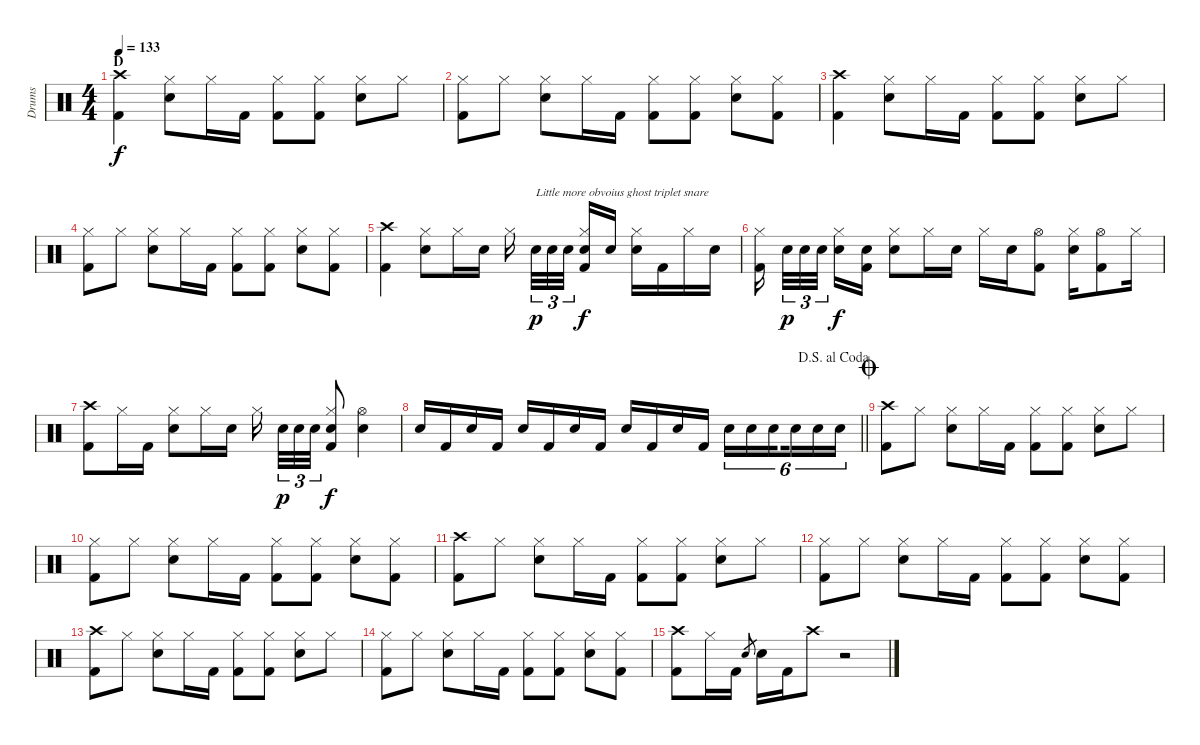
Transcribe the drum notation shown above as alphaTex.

\track ("Drums" "Drums") {instrument percussion}
\staff {score}
\articulation defaults
\ts (4 4)
\section ("" "D")
\tempo 133
\clef neutral
\ks c
("Crash high (hit)" "Kick (hit) 2").4{dy f} ("Hi-Hat (closed)" "Electric Snare (hit)").8 "Hi-Hat (closed)".16 "Kick (hit) 2".16 ("Hi-Hat (closed)" "Kick (hit) 2").8 ("Hi-Hat (closed)" "Kick (hit) 2").8 ("Hi-Hat (closed)" "Electric Snare (hit)").8 "Hi-Hat (closed)".8 |
("Hi-Hat (closed)" "Kick (hit) 2").8 "Hi-Hat (closed)".8 ("Hi-Hat (closed)" "Electric Snare (hit)").8 "Hi-Hat (closed)".16 "Kick (hit) 2".16 ("Hi-Hat (closed)" "Kick (hit) 2").8 ("Hi-Hat (closed)" "Kick (hit) 2").8 ("Hi-Hat (closed)" "Electric Snare (hit)").8 ("Hi-Hat (closed)" "Kick (hit) 2").8 |
("Crash high (hit)" "Kick (hit) 2").4 ("Hi-Hat (closed)" "Electric Snare (hit)").8 "Hi-Hat (closed)".16 "Kick (hit) 2".16 ("Hi-Hat (closed)" "Kick (hit) 2").8 ("Hi-Hat (closed)" "Kick (hit) 2").8 ("Hi-Hat (closed)" "Electric Snare (hit)").8 "Hi-Hat (closed)".8 |
("Hi-Hat (closed)" "Kick (hit) 2").8 "Hi-Hat (closed)".8 ("Hi-Hat (closed)" "Electric Snare (hit)").8 "Hi-Hat (closed)".16 "Kick (hit) 2".16 ("Hi-Hat (closed)" "Kick (hit) 2").8 ("Hi-Hat (closed)" "Kick (hit) 2").8 ("Hi-Hat (closed)" "Electric Snare (hit)").8 ("Hi-Hat (closed)" "Kick (hit) 2").8 |
("Crash high (hit)" "Kick (hit) 2").4 ("Hi-Hat (closed)" "Electric Snare (hit)").8 "Hi-Hat (closed)".16 "Electric Snare (hit)".16 "Hi-Hat (closed)".16{beam splitsecondary} "Electric Snare (hit)".32{tu (3 2) txt "Little more obvoius ghost triplet snare" dy p} "Electric Snare (hit)".32{tu (3 2)} "Electric Snare (hit)".32{tu (3 2) beam splitsecondary} ("Hi-Hat (closed)" "Electric Snare (hit)" "Kick (hit) 2").16{dy f} "Electric Snare (hit)".16 ("Hi-Hat (closed)" "Electric Snare (hit)").16 "Kick (hit) 2".16 "Hi-Hat (closed)".16 "Electric Snare (hit)".16 |
("Hi-Hat (closed)" "Kick (hit) 2").16{beam splitsecondary} "Electric Snare (hit)".32{tu (3 2) dy p} "Electric Snare (hit)".32{tu (3 2)} "Electric Snare (hit)".32{tu (3 2) beam splitsecondary} ("Hi-Hat (closed)" "Electric Snare (hit)").16{dy f} ("Electric Snare (hit)" "Kick (hit) 2").16 ("Hi-Hat (closed)" "Electric Snare (hit)").8 "Hi-Hat (closed)".16 "Electric Snare (hit)".16 "Hi-Hat (closed)".16 "Electric Snare (hit)".16 ("Hi-Hat (open)" "Kick (hit) 2").8 ("Hi-Hat (closed)" "Electric Snare (hit)").16 ("Hi-Hat (open)" "Kick (hit) 2").8 "Hi-Hat (closed)".16 |
("Crash high (hit)" "Kick (hit) 2").8 "Hi-Hat (closed)".16 "Kick (hit) 2".16 ("Hi-Hat (closed)" "Electric Snare (hit)").8 "Hi-Hat (closed)".16 "Electric Snare (hit)".16 "Hi-Hat (closed)".16{beam splitsecondary} "Electric Snare (hit)".32{tu (3 2) dy p} "Electric Snare (hit)".32{tu (3 2)} "Electric Snare (hit)".32{tu (3 2)} ("Hi-Hat (closed)" "Electric Snare (hit)" "Kick (hit) 2").8{dy f} ("Hi-Hat (open)" "Electric Snare (hit)").4 |
\jump dalsegnoalcoda
\barLineRight lightlight "Electric Snare (hit)".16 "Kick (hit) 2".16 "Electric Snare (hit)".16 "Kick (hit) 2".16 "Electric Snare (hit)".16 "Kick (hit) 2".16 "Electric Snare (hit)".16 "Kick (hit) 2".16 "Electric Snare (hit)".16 "Kick (hit) 2".16 "Electric Snare (hit)".16 "Kick (hit) 2".16 "Electric Snare (hit)".16{tu (6 4)} "Electric Snare (hit)".16{tu (6 4)} "Electric Snare (hit)".16{tu (6 4) beam splitsecondary} "Electric Snare (hit)".16{tu (6 4)} "Electric Snare (hit)".16{tu (6 4)} "Electric Snare (hit)".16{tu (6 4)}
|
\jump coda
("Crash high (hit)" "Kick (hit) 2").8 "Hi-Hat (closed)".8 ("Hi-Hat (closed)" "Electric Snare (hit)").8 "Hi-Hat (closed)".16 "Kick (hit) 2".16 ("Hi-Hat (closed)" "Kick (hit) 2").8 ("Hi-Hat (closed)" "Kick (hit) 2").8 ("Hi-Hat (closed)" "Electric Snare (hit)").8 "Hi-Hat (closed)".8 |
("Hi-Hat (closed)" "Kick (hit) 2").8 "Hi-Hat (closed)".8 ("Hi-Hat (closed)" "Electric Snare (hit)").8 "Hi-Hat (closed)".16 "Kick (hit) 2".16 ("Hi-Hat (closed)" "Kick (hit) 2").8 ("Hi-Hat (closed)" "Kick (hit) 2").8 ("Hi-Hat (closed)" "Electric Snare (hit)").8 ("Hi-Hat (closed)" "Kick (hit) 2").8 |
("Crash high (hit)" "Kick (hit) 2").8 "Hi-Hat (closed)".8 ("Hi-Hat (closed)" "Electric Snare (hit)").8 "Hi-Hat (closed)".16 "Kick (hit) 2".16 ("Hi-Hat (closed)" "Kick (hit) 2").8 ("Hi-Hat (closed)" "Kick (hit) 2").8 ("Hi-Hat (closed)" "Electric Snare (hit)").8 "Hi-Hat (closed)".8 |
("Hi-Hat (closed)" "Kick (hit) 2").8 "Hi-Hat (closed)".8 ("Hi-Hat (closed)" "Electric Snare (hit)").8 "Hi-Hat (closed)".16 "Kick (hit) 2".16 ("Hi-Hat (closed)" "Kick (hit) 2").8 ("Hi-Hat (closed)" "Kick (hit) 2").8 ("Hi-Hat (closed)" "Electric Snare (hit)").8 ("Hi-Hat (closed)" "Kick (hit) 2").8 |
("Crash high (hit)" "Kick (hit) 2").8 "Hi-Hat (closed)".8 ("Hi-Hat (closed)" "Electric Snare (hit)").8 "Hi-Hat (closed)".16 "Kick (hit) 2".16 ("Hi-Hat (closed)" "Kick (hit) 2").8 ("Hi-Hat (closed)" "Kick (hit) 2").8 ("Hi-Hat (closed)" "Electric Snare (hit)").8 "Hi-Hat (closed)".8 |
("Hi-Hat (closed)" "Kick (hit) 2").8 "Hi-Hat (closed)".8 ("Hi-Hat (closed)" "Electric Snare (hit)").8 "Hi-Hat (closed)".16 "Kick (hit) 2".16 ("Hi-Hat (closed)" "Kick (hit) 2").8 ("Hi-Hat (closed)" "Kick (hit) 2").8 ("Hi-Hat (closed)" "Electric Snare (hit)").8 ("Hi-Hat (closed)" "Kick (hit) 2").8 |
("Crash high (hit)" "Kick (hit) 2").8 "Hi-Hat (closed)".16 "Kick (hit) 2".16 "Electric Snare (hit)".8{gr} "Electric Snare (hit)".16 "Kick (hit) 2".16 "Crash high (hit)".8 r.2
